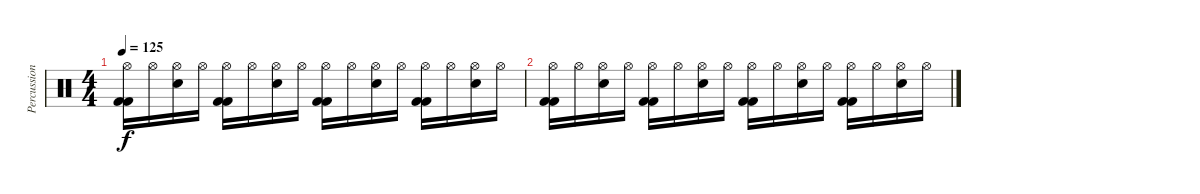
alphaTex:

\track ("Percussioni" "Percussion") {instrument percussion}
\staff {score}
\articulation defaults
\ts (4 4)
\tempo 125
\clef neutral
\ks c
("Hi-Hat (open)" "Kick (hit) 2" "Kick (hit) 2").16{dy f} "Hi-Hat (open)".16 ("Hi-Hat (open)" "Electric Snare (hit)").16 "Hi-Hat (open)".16 ("Hi-Hat (open)" "Kick (hit) 2" "Kick (hit) 2").16 "Hi-Hat (open)".16 ("Hi-Hat (open)" "Electric Snare (hit)").16 "Hi-Hat (open)".16 ("Hi-Hat (open)" "Kick (hit) 2" "Kick (hit) 2").16 "Hi-Hat (open)".16 ("Hi-Hat (open)" "Electric Snare (hit)").16 "Hi-Hat (open)".16 ("Hi-Hat (open)" "Kick (hit) 2" "Kick (hit) 2").16 "Hi-Hat (open)".16 ("Hi-Hat (open)" "Electric Snare (hit)").16 "Hi-Hat (open)".16 |
("Hi-Hat (open)" "Kick (hit) 2" "Kick (hit) 2").16 "Hi-Hat (open)".16 ("Hi-Hat (open)" "Electric Snare (hit)").16 "Hi-Hat (open)".16 ("Hi-Hat (open)" "Kick (hit) 2" "Kick (hit) 2").16 "Hi-Hat (open)".16 ("Hi-Hat (open)" "Electric Snare (hit)").16 "Hi-Hat (open)".16 ("Hi-Hat (open)" "Kick (hit) 2" "Kick (hit) 2").16 "Hi-Hat (open)".16 ("Hi-Hat (open)" "Electric Snare (hit)").16 "Hi-Hat (open)".16 ("Hi-Hat (open)" "Kick (hit) 2" "Kick (hit) 2").16 "Hi-Hat (open)".16 ("Hi-Hat (open)" "Electric Snare (hit)").16 "Hi-Hat (open)".16
